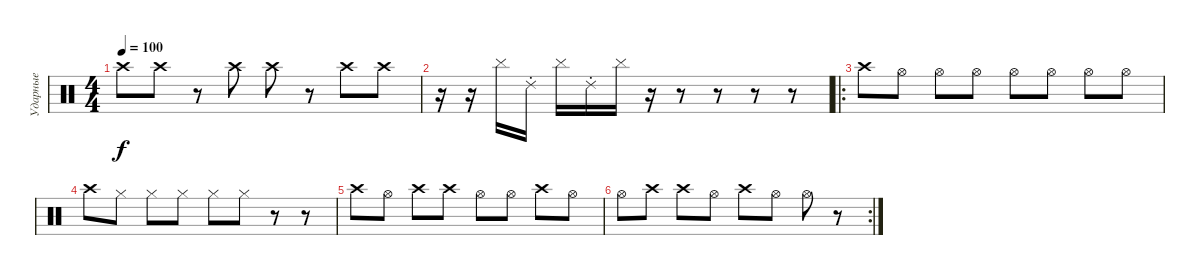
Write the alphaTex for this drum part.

\track ("Ударные" "Ударные") {instrument percussion}
\staff {score}
\articulation defaults
\ts (4 4)
\tempo 100
\clef neutral
\ks c "Crash high (hit)".8{dy f} "Crash high (hit)".8
r.8 "Crash high (hit)".8 "Crash high (hit)".8 r.8 "Crash high (hit)".8 "Crash high (hit)".8 |
r.16 r.16 "Cymbal (hit)".16 "Ride (choke) 2".16 "Cymbal (hit)".16 "Ride (choke) 2".16 "Cymbal (hit)".16 r.16 r.8 r.8 r.8 r.8 |
\ro "Crash high (hit)".8 "Hi-Hat (open)".8 "Hi-Hat (open)".8 "Hi-Hat (open)".8 "Hi-Hat (open)".8 "Hi-Hat (open)".8 "Hi-Hat (open)".8 "Hi-Hat (open)".8
|
"Crash high (hit)".8 "Hi-Hat (closed)".8 "Hi-Hat (closed)".8 "Hi-Hat (closed)".8 "Hi-Hat (closed)".8 "Hi-Hat (closed)".8 r.8 r.8 |
"Crash high (hit)".8 "Hi-Hat (open)".8 "Crash high (hit)".8 "Crash high (hit)".8 "Hi-Hat (open)".8 "Hi-Hat (open)".8 "Crash high (hit)".8 "Hi-Hat (open)".8 |
\rc 2 "Hi-Hat (open)".8 "Crash high (hit)".8 "Crash high (hit)".8 "Hi-Hat (open)".8 "Crash high (hit)".8 "Hi-Hat (open)".8 "Hi-Hat (open)".8
r.8
